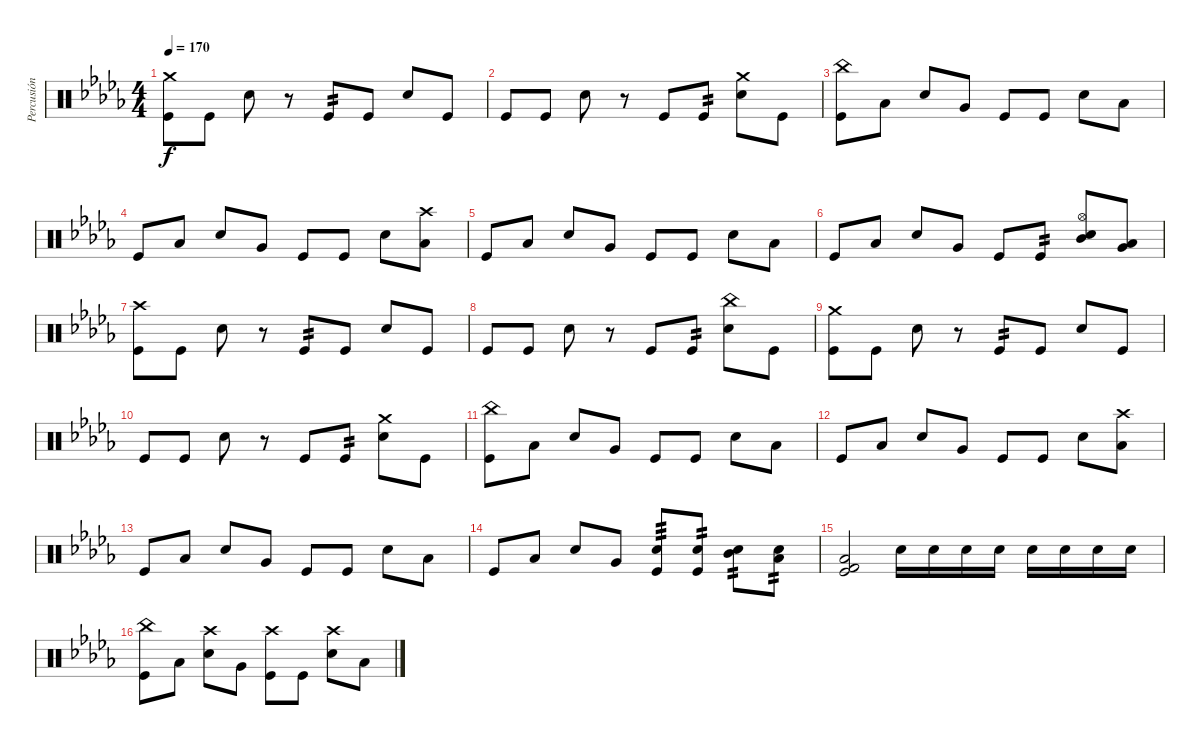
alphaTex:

\track ("Percusión" "Percusión") {instrument percussion}
\staff {score}
\articulation defaults
\ts (4 4)
\tempo 170
\clef neutral
\ks db
("Crash medium (hit)" "Kick (hit)").8{dy f} "Kick (hit)".8 "Electric Snare (hit)".8 r.8 "Kick (hit)".8{tp 2} "Kick (hit)".8 "Electric Snare (hit)".8 "Kick (hit)".8 |
"Kick (hit)".8 "Kick (hit)".8 "Electric Snare (hit)".8 r.8 "Kick (hit)".8 "Kick (hit)".8{tp 2} ("Crash medium (hit)" "Electric Snare (hit)").8 "Kick (hit)".8 |
("China (hit)" "Kick (hit)").8 "Low Floor Tom (hit)".8 "Electric Snare (hit)".8 "Very Low Tom (hit)".8 "Kick (hit)".8 "Kick (hit)".8 "Electric Snare (hit)".8 "Low Tom (hit)".8 |
"Kick (hit)".8 "Low Floor Tom (hit)".8 "Electric Snare (hit)".8 "Very Low Tom (hit)".8 "Kick (hit)".8 "Kick (hit)".8 "Electric Snare (hit)".8 ("Crash high (hit)" "Low Tom (hit)").8 |
"Kick (hit)".8 "Low Floor Tom (hit)".8 "Electric Snare (hit)".8 "Very Low Tom (hit)".8 "Kick (hit)".8 "Kick (hit)".8 "Electric Snare (hit)".8 "Low Tom (hit)".8 |
"Kick (hit)".8 "Low Floor Tom (hit)".8 "Electric Snare (hit)".8 "Very Low Tom (hit)".8 "Kick (hit)".8 "Kick (hit)".8{tp 2} ("Hi-Hat (open)" "Mid Tom (hit)" "Electric Snare (hit)").8 ("Low Tom (hit)" "Very Low Tom (hit)").8 |
("Crash high (hit)" "Kick (hit)").8 "Kick (hit)".8 "Electric Snare (hit)".8 r.8 "Kick (hit)".8{tp 2} "Kick (hit)".8 "Electric Snare (hit)".8 "Kick (hit)".8 |
"Kick (hit)".8 "Kick (hit)".8 "Electric Snare (hit)".8 r.8 "Kick (hit)".8 "Kick (hit)".8{tp 2} ("China (hit)" "Electric Snare (hit)").8 "Kick (hit)".8 |
("Crash medium (hit)" "Kick (hit)").8 "Kick (hit)".8 "Electric Snare (hit)".8 r.8 "Kick (hit)".8{tp 2} "Kick (hit)".8 "Electric Snare (hit)".8 "Kick (hit)".8 |
"Kick (hit)".8 "Kick (hit)".8 "Electric Snare (hit)".8 r.8 "Kick (hit)".8 "Kick (hit)".8{tp 2} ("Crash medium (hit)" "Electric Snare (hit)").8 "Kick (hit)".8 |
("China (hit)" "Kick (hit)").8 "Low Floor Tom (hit)".8 "Electric Snare (hit)".8 "Very Low Tom (hit)".8 "Kick (hit)".8 "Kick (hit)".8 "Electric Snare (hit)".8 "Low Tom (hit)".8 |
"Kick (hit)".8 "Low Floor Tom (hit)".8 "Electric Snare (hit)".8 "Very Low Tom (hit)".8 "Kick (hit)".8 "Kick (hit)".8 "Electric Snare (hit)".8 ("Crash high (hit)" "Low Tom (hit)").8 |
"Kick (hit)".8 "Low Floor Tom (hit)".8 "Electric Snare (hit)".8 "Very Low Tom (hit)".8 "Kick (hit)".8 "Kick (hit)".8 "Electric Snare (hit)".8 "Low Tom (hit)".8 |
"Kick (hit)".8 "Low Floor Tom (hit)".8 "Electric Snare (hit)".8 "Very Low Tom (hit)".8 ("Electric Snare (hit)" "Kick (hit)").8{tp 3} ("Electric Snare (hit)" "Kick (hit)").8{tp 2} ("Mid Tom (hit)" "Electric Snare (hit)").8{tp 2} ("Low Tom (hit)" "Electric Snare (hit)").8{tp 2} |
("Low Floor Tom (hit)" "Kick (hit)" "Kick (hit) 2").2 "Electric Snare (hit)".16 "Electric Snare (hit)".16 "Electric Snare (hit)".16 "Electric Snare (hit)".16 "Electric Snare (hit)".16 "Electric Snare (hit)".16 "Electric Snare (hit)".16 "Electric Snare (hit)".16 |
("China (hit)" "Kick (hit)").8 "Low Floor Tom (hit)".8 ("Crash high (hit)" "Electric Snare (hit)").8 "Very Low Tom (hit)".8 ("Crash high (hit)" "Kick (hit)").8 "Kick (hit)".8 ("Crash high (hit)" "Electric Snare (hit)").8 "Low Tom (hit)".8
